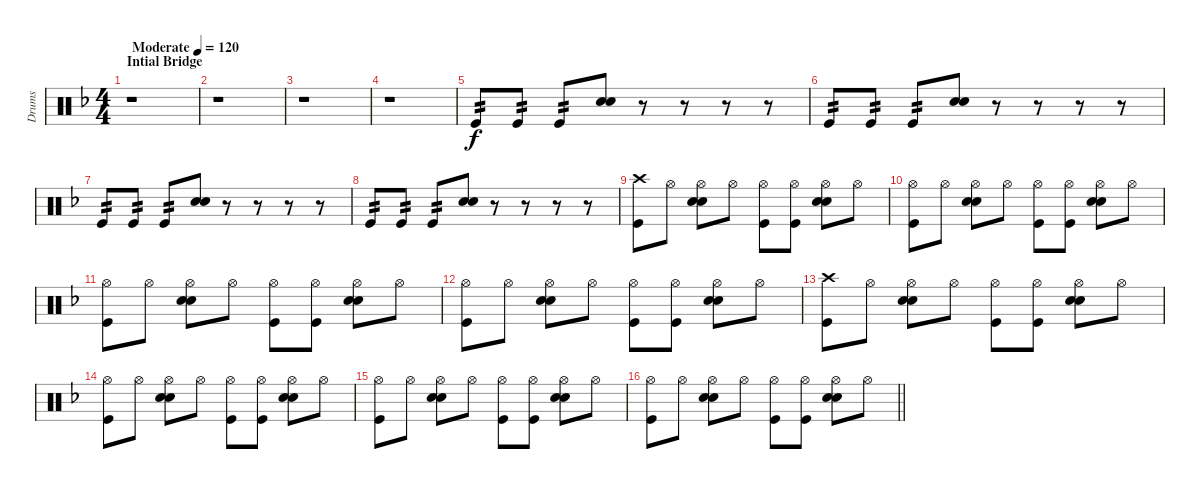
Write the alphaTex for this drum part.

\track ("Drums" "Drums") {instrument percussion}
\staff {score}
\articulation defaults
\ts (4 4)
\section ("" "Intial Bridge")
\tempo (120 "Moderate")
\clef neutral
\ks f
r.1{dy f} |
r.1 |
r.1 |
r.1 |
"Kick (hit)".8{tp 2} "Kick (hit)".8{tp 2} "Kick (hit)".8{tp 2} ("Electric Snare (hit)" "Snare (hit) 2").8 r.8 r.8 r.8 r.8 |
"Kick (hit)".8{tp 2} "Kick (hit)".8{tp 2} "Kick (hit)".8{tp 2} ("Electric Snare (hit)" "Snare (hit) 2").8 r.8 r.8 r.8 r.8 |
"Kick (hit)".8{tp 2} "Kick (hit)".8{tp 2} "Kick (hit)".8{tp 2} ("Electric Snare (hit)" "Snare (hit) 2").8 r.8 r.8 r.8 r.8 |
"Kick (hit)".8{tp 2} "Kick (hit)".8{tp 2} "Kick (hit)".8{tp 2} ("Electric Snare (hit)" "Snare (hit) 2").8 r.8 r.8 r.8 r.8 |
("Crash high (hit)" "Kick (hit)").8 "Hi-Hat (open)".8 ("Hi-Hat (open)" "Electric Snare (hit)" "Snare (hit) 2").8 "Hi-Hat (open)".8 ("Hi-Hat (open)" "Kick (hit)").8 ("Hi-Hat (open)" "Kick (hit)").8 ("Hi-Hat (open)" "Electric Snare (hit)" "Snare (hit) 2").8 "Hi-Hat (open)".8 |
("Hi-Hat (open)" "Kick (hit)").8 "Hi-Hat (open)".8 ("Hi-Hat (open)" "Electric Snare (hit)" "Snare (hit) 2").8 "Hi-Hat (open)".8 ("Hi-Hat (open)" "Kick (hit)").8 ("Hi-Hat (open)" "Kick (hit)").8 ("Hi-Hat (open)" "Electric Snare (hit)" "Snare (hit) 2").8 "Hi-Hat (open)".8 |
("Hi-Hat (open)" "Kick (hit)").8 "Hi-Hat (open)".8 ("Hi-Hat (open)" "Electric Snare (hit)" "Snare (hit) 2").8 "Hi-Hat (open)".8 ("Hi-Hat (open)" "Kick (hit)").8 ("Hi-Hat (open)" "Kick (hit)").8 ("Hi-Hat (open)" "Electric Snare (hit)" "Snare (hit) 2").8 "Hi-Hat (open)".8 |
("Hi-Hat (open)" "Kick (hit)").8 "Hi-Hat (open)".8 ("Hi-Hat (open)" "Electric Snare (hit)" "Snare (hit) 2").8 "Hi-Hat (open)".8 ("Hi-Hat (open)" "Kick (hit)").8 ("Hi-Hat (open)" "Kick (hit)").8 ("Hi-Hat (open)" "Electric Snare (hit)" "Snare (hit) 2").8 "Hi-Hat (open)".8 |
("Crash high (hit)" "Kick (hit)").8 "Hi-Hat (open)".8 ("Hi-Hat (open)" "Electric Snare (hit)" "Snare (hit) 2").8 "Hi-Hat (open)".8 ("Hi-Hat (open)" "Kick (hit)").8 ("Hi-Hat (open)" "Kick (hit)").8 ("Hi-Hat (open)" "Electric Snare (hit)" "Snare (hit) 2").8 "Hi-Hat (open)".8 |
("Hi-Hat (open)" "Kick (hit)").8 "Hi-Hat (open)".8 ("Hi-Hat (open)" "Electric Snare (hit)" "Snare (hit) 2").8 "Hi-Hat (open)".8 ("Hi-Hat (open)" "Kick (hit)").8 ("Hi-Hat (open)" "Kick (hit)").8 ("Hi-Hat (open)" "Electric Snare (hit)" "Snare (hit) 2").8 "Hi-Hat (open)".8 |
("Hi-Hat (open)" "Kick (hit)").8 "Hi-Hat (open)".8 ("Hi-Hat (open)" "Electric Snare (hit)" "Snare (hit) 2").8 "Hi-Hat (open)".8 ("Hi-Hat (open)" "Kick (hit)").8 ("Hi-Hat (open)" "Kick (hit)").8 ("Hi-Hat (open)" "Electric Snare (hit)" "Snare (hit) 2").8 "Hi-Hat (open)".8 |
\barLineRight lightlight
("Hi-Hat (open)" "Kick (hit)").8 "Hi-Hat (open)".8 ("Hi-Hat (open)" "Electric Snare (hit)" "Snare (hit) 2").8 "Hi-Hat (open)".8 ("Hi-Hat (open)" "Kick (hit)").8 ("Hi-Hat (open)" "Kick (hit)").8 ("Hi-Hat (open)" "Electric Snare (hit)" "Snare (hit) 2").8 "Hi-Hat (open)".8
